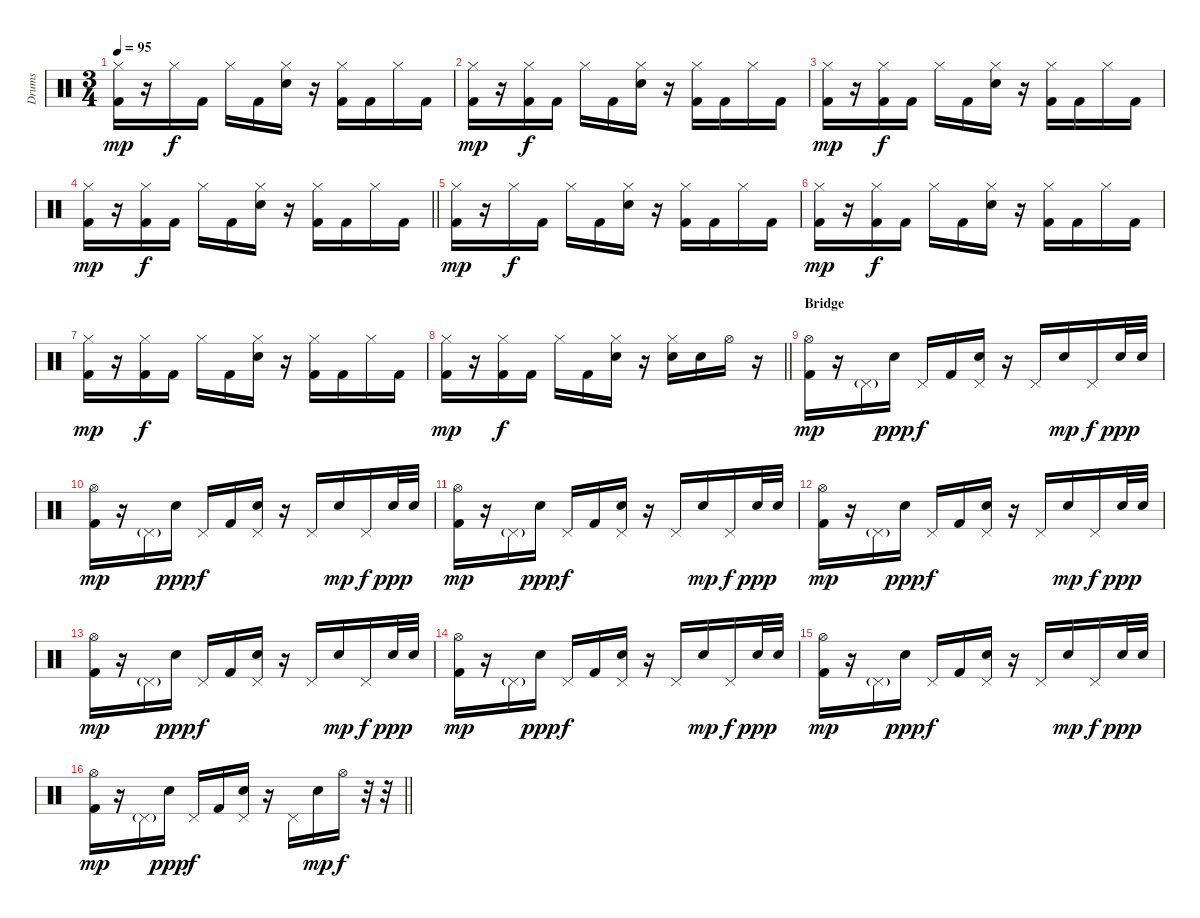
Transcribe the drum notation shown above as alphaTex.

\track ("Drums" "Drums") {instrument percussion}
\staff {score}
\articulation defaults
\ts (3 4)
\tempo 95
\clef neutral
\ks c
("Hi-Hat (closed)" "Kick (hit) 2").16{dy mp} r.16 "Hi-Hat (closed)".16{dy f} "Kick (hit) 2".16 "Hi-Hat (closed)".16 "Kick (hit) 2".16 ("Hi-Hat (closed)" "Electric Snare (hit)").16 r.16 ("Hi-Hat (closed)" "Kick (hit) 2").16 "Kick (hit) 2".16 "Hi-Hat (closed)".16 "Kick (hit) 2".16 |
("Hi-Hat (closed)" "Kick (hit) 2").16{dy mp} r.16 ("Hi-Hat (closed)" "Kick (hit) 2").16{dy f} "Kick (hit) 2".16 "Hi-Hat (closed)".16 "Kick (hit) 2".16 ("Hi-Hat (closed)" "Electric Snare (hit)").16 r.16 ("Hi-Hat (closed)" "Kick (hit) 2").16 "Kick (hit) 2".16 "Hi-Hat (closed)".16 "Kick (hit) 2".16 |
("Hi-Hat (closed)" "Kick (hit) 2").16{dy mp} r.16 ("Hi-Hat (closed)" "Kick (hit) 2").16{dy f} "Kick (hit) 2".16 "Hi-Hat (closed)".16 "Kick (hit) 2".16 ("Hi-Hat (closed)" "Electric Snare (hit)").16 r.16 ("Hi-Hat (closed)" "Kick (hit) 2").16 "Kick (hit) 2".16 "Hi-Hat (closed)".16 "Kick (hit) 2".16 |
\barLineRight lightlight
("Hi-Hat (closed)" "Kick (hit) 2").16{dy mp} r.16 ("Hi-Hat (closed)" "Kick (hit) 2").16{dy f} "Kick (hit) 2".16 "Hi-Hat (closed)".16 "Kick (hit) 2".16 ("Hi-Hat (closed)" "Electric Snare (hit)").16 r.16 ("Hi-Hat (closed)" "Kick (hit) 2").16 "Kick (hit) 2".16 "Hi-Hat (closed)".16 "Kick (hit) 2".16 |
("Hi-Hat (closed)" "Kick (hit) 2").16{dy mp} r.16 "Hi-Hat (closed)".16{dy f} "Kick (hit) 2".16 "Hi-Hat (closed)".16 "Kick (hit) 2".16 ("Hi-Hat (closed)" "Electric Snare (hit)").16 r.16 ("Hi-Hat (closed)" "Kick (hit) 2").16 "Kick (hit) 2".16 "Hi-Hat (closed)".16 "Kick (hit) 2".16 |
("Hi-Hat (closed)" "Kick (hit) 2").16{dy mp} r.16 ("Hi-Hat (closed)" "Kick (hit) 2").16{dy f} "Kick (hit) 2".16 "Hi-Hat (closed)".16 "Kick (hit) 2".16 ("Hi-Hat (closed)" "Electric Snare (hit)").16 r.16 ("Hi-Hat (closed)" "Kick (hit) 2").16 "Kick (hit) 2".16 "Hi-Hat (closed)".16 "Kick (hit) 2".16 |
("Hi-Hat (closed)" "Kick (hit) 2").16{dy mp} r.16 ("Hi-Hat (closed)" "Kick (hit) 2").16{dy f} "Kick (hit) 2".16 "Hi-Hat (closed)".16 "Kick (hit) 2".16 ("Hi-Hat (closed)" "Electric Snare (hit)").16 r.16 ("Hi-Hat (closed)" "Kick (hit) 2").16 "Kick (hit) 2".16 "Hi-Hat (closed)".16 "Kick (hit) 2".16 |
\barLineRight lightlight
("Hi-Hat (closed)" "Kick (hit) 2").16{dy mp} r.16 ("Hi-Hat (closed)" "Kick (hit) 2").16{dy f} "Kick (hit) 2".16 "Hi-Hat (closed)".16 "Kick (hit) 2".16 ("Hi-Hat (closed)" "Electric Snare (hit)").16 r.16 ("Hi-Hat (closed)" "Electric Snare (hit)").16 "Electric Snare (hit)".16 "Hi-Hat (open)".16 r.16 |
\section ("" "Bridge")
("Hi-Hat (open)" "Kick (hit) 2").16{dy mp} r.16 "Pedal Hi-Hat (hit)"{g}.16 "Electric Snare (hit)".16{dy ppp} "Pedal Hi-Hat (hit)".16{dy f} "Kick (hit) 2".16 ("Pedal Hi-Hat (hit)" "Electric Snare (hit)").16 r.16 "Pedal Hi-Hat (hit)".16 "Electric Snare (hit)".16{dy mp} "Pedal Hi-Hat (hit)".16{dy f} "Electric Snare (hit)".32{dy ppp} "Electric Snare (hit)".32 |
("Hi-Hat (open)" "Kick (hit) 2").16{dy mp} r.16 "Pedal Hi-Hat (hit)"{g}.16 "Electric Snare (hit)".16{dy ppp} "Pedal Hi-Hat (hit)".16{dy f} "Kick (hit) 2".16 ("Pedal Hi-Hat (hit)" "Electric Snare (hit)").16 r.16 "Pedal Hi-Hat (hit)".16 "Electric Snare (hit)".16{dy mp} "Pedal Hi-Hat (hit)".16{dy f} "Electric Snare (hit)".32{dy ppp} "Electric Snare (hit)".32 |
("Hi-Hat (open)" "Kick (hit) 2").16{dy mp} r.16 "Pedal Hi-Hat (hit)"{g}.16 "Electric Snare (hit)".16{dy ppp} "Pedal Hi-Hat (hit)".16{dy f} "Kick (hit) 2".16 ("Pedal Hi-Hat (hit)" "Electric Snare (hit)").16 r.16 "Pedal Hi-Hat (hit)".16 "Electric Snare (hit)".16{dy mp} "Pedal Hi-Hat (hit)".16{dy f} "Electric Snare (hit)".32{dy ppp} "Electric Snare (hit)".32 |
("Hi-Hat (open)" "Kick (hit) 2").16{dy mp} r.16 "Pedal Hi-Hat (hit)"{g}.16 "Electric Snare (hit)".16{dy ppp} "Pedal Hi-Hat (hit)".16{dy f} "Kick (hit) 2".16 ("Pedal Hi-Hat (hit)" "Electric Snare (hit)").16 r.16 "Pedal Hi-Hat (hit)".16 "Electric Snare (hit)".16{dy mp} "Pedal Hi-Hat (hit)".16{dy f} "Electric Snare (hit)".32{dy ppp} "Electric Snare (hit)".32 |
("Hi-Hat (open)" "Kick (hit) 2").16{dy mp} r.16 "Pedal Hi-Hat (hit)"{g}.16 "Electric Snare (hit)".16{dy ppp} "Pedal Hi-Hat (hit)".16{dy f} "Kick (hit) 2".16 ("Pedal Hi-Hat (hit)" "Electric Snare (hit)").16 r.16 "Pedal Hi-Hat (hit)".16 "Electric Snare (hit)".16{dy mp} "Pedal Hi-Hat (hit)".16{dy f} "Electric Snare (hit)".32{dy ppp} "Electric Snare (hit)".32 |
("Hi-Hat (open)" "Kick (hit) 2").16{dy mp} r.16 "Pedal Hi-Hat (hit)"{g}.16 "Electric Snare (hit)".16{dy ppp} "Pedal Hi-Hat (hit)".16{dy f} "Kick (hit) 2".16 ("Pedal Hi-Hat (hit)" "Electric Snare (hit)").16 r.16 "Pedal Hi-Hat (hit)".16 "Electric Snare (hit)".16{dy mp} "Pedal Hi-Hat (hit)".16{dy f} "Electric Snare (hit)".32{dy ppp} "Electric Snare (hit)".32 |
("Hi-Hat (open)" "Kick (hit) 2").16{dy mp} r.16 "Pedal Hi-Hat (hit)"{g}.16 "Electric Snare (hit)".16{dy ppp} "Pedal Hi-Hat (hit)".16{dy f} "Kick (hit) 2".16 ("Pedal Hi-Hat (hit)" "Electric Snare (hit)").16 r.16 "Pedal Hi-Hat (hit)".16 "Electric Snare (hit)".16{dy mp} "Pedal Hi-Hat (hit)".16{dy f} "Electric Snare (hit)".32{dy ppp} "Electric Snare (hit)".32 |
\barLineRight lightlight
("Hi-Hat (open)" "Kick (hit) 2").16{dy mp} r.16 "Pedal Hi-Hat (hit)"{g}.16 "Electric Snare (hit)".16{dy ppp} "Pedal Hi-Hat (hit)".16{dy f} "Kick (hit) 2".16 ("Pedal Hi-Hat (hit)" "Electric Snare (hit)").16 r.16 "Pedal Hi-Hat (hit)".16 "Electric Snare (hit)".16{dy mp} "Hi-Hat (open)".16{dy f} r.32 r.32
